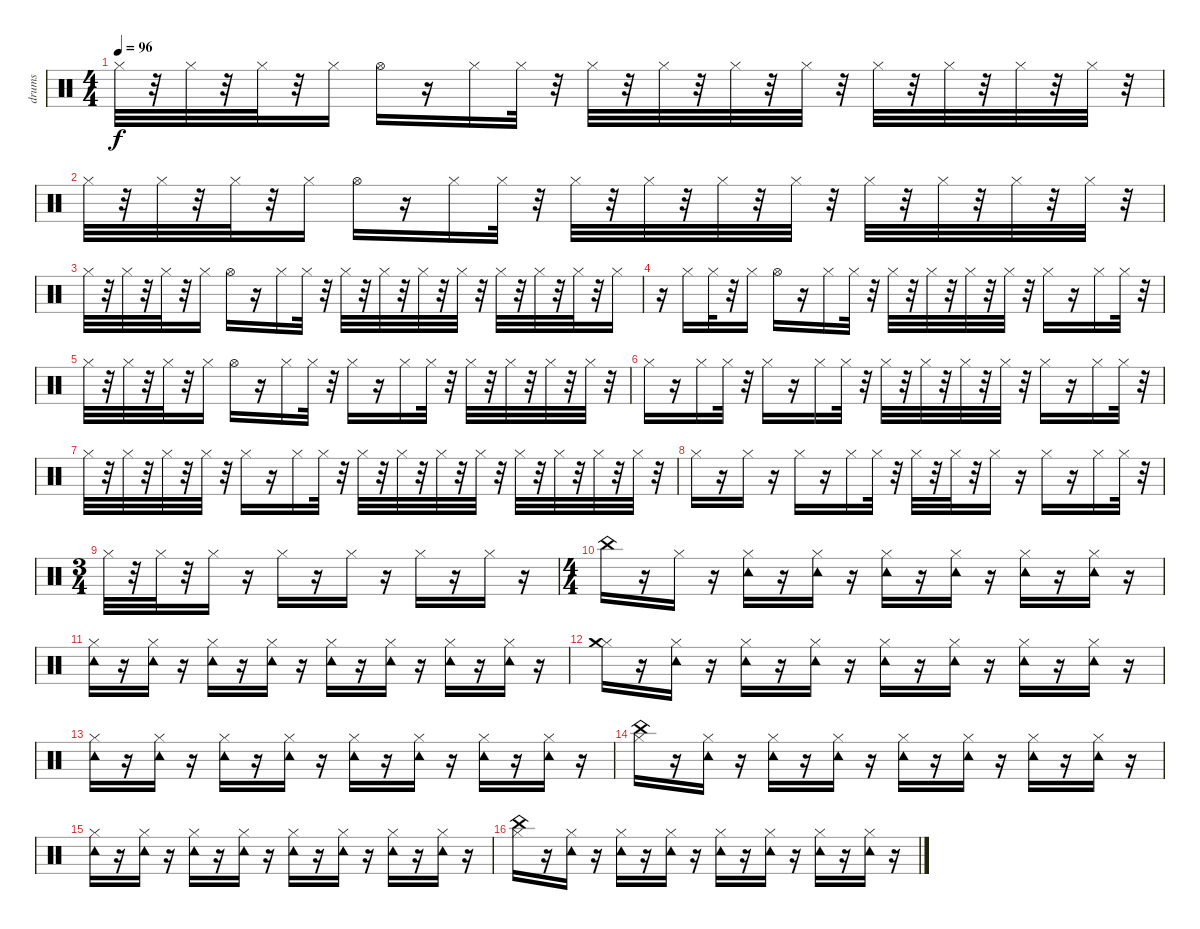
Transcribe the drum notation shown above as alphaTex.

\track ("drums" "drums") {instrument percussion}
\staff {score}
\articulation defaults
\ts (4 4)
\tempo 96
\clef neutral
\ks c "Hi-Hat (closed)".32{dy f}
r.32 "Hi-Hat (closed)".32 r.32 "Hi-Hat (closed)".32 r.32 "Hi-Hat (closed)".16 "Hi-Hat (open)".16 r.16 "Hi-Hat (closed)".16 "Hi-Hat (closed)".32 r.32 "Hi-Hat (closed)".32 r.32 "Hi-Hat (closed)".32 r.32 "Hi-Hat (closed)".32 r.32 "Hi-Hat (closed)".32 r.32 "Hi-Hat (closed)".32 r.32 "Hi-Hat (closed)".32 r.32 "Hi-Hat (closed)".32 r.32 "Hi-Hat (closed)".32 r.32 |
"Hi-Hat (closed)".32 r.32 "Hi-Hat (closed)".32 r.32 "Hi-Hat (closed)".32 r.32 "Hi-Hat (closed)".16 "Hi-Hat (open)".16 r.16 "Hi-Hat (closed)".16 "Hi-Hat (closed)".32 r.32 "Hi-Hat (closed)".32 r.32 "Hi-Hat (closed)".32 r.32 "Hi-Hat (closed)".32 r.32 "Hi-Hat (closed)".32 r.32 "Hi-Hat (closed)".32 r.32 "Hi-Hat (closed)".32 r.32 "Hi-Hat (closed)".32 r.32 "Hi-Hat (closed)".32 r.32 |
"Hi-Hat (closed)".32 r.32 "Hi-Hat (closed)".32 r.32 "Hi-Hat (closed)".32 r.32 "Hi-Hat (closed)".16 "Hi-Hat (open)".16 r.16 "Hi-Hat (closed)".16 "Hi-Hat (closed)".32 r.32 "Hi-Hat (closed)".32 r.32 "Hi-Hat (closed)".32 r.32 "Hi-Hat (closed)".32 r.32 "Hi-Hat (closed)".32 r.32 "Hi-Hat (closed)".32 r.32 "Hi-Hat (closed)".32 r.32 "Hi-Hat (closed)".32 r.32 "Hi-Hat (closed)".16 |
r.16 "Hi-Hat (closed)".16 "Hi-Hat (closed)".32 r.32 "Hi-Hat (closed)".16 "Hi-Hat (open)".16 r.16 "Hi-Hat (closed)".16 "Hi-Hat (closed)".32 r.32 "Hi-Hat (closed)".32 r.32 "Hi-Hat (closed)".32 r.32 "Hi-Hat (closed)".32 r.32 "Hi-Hat (closed)".32 r.32 "Hi-Hat (closed)".16 r.16 "Hi-Hat (closed)".16 "Hi-Hat (closed)".32 r.32 |
"Hi-Hat (closed)".32 r.32 "Hi-Hat (closed)".32 r.32 "Hi-Hat (closed)".32 r.32 "Hi-Hat (closed)".16 "Hi-Hat (open)".16 r.16 "Hi-Hat (closed)".16 "Hi-Hat (closed)".32 r.32 "Hi-Hat (closed)".16 r.16 "Hi-Hat (closed)".16 "Hi-Hat (closed)".32 r.32 "Hi-Hat (closed)".32 r.32 "Hi-Hat (closed)".32 r.32 "Hi-Hat (closed)".32 r.32 "Hi-Hat (closed)".32 r.32 |
"Hi-Hat (closed)".16 r.16 "Hi-Hat (closed)".16 "Hi-Hat (closed)".32 r.32 "Hi-Hat (closed)".16 r.16 "Hi-Hat (closed)".16 "Hi-Hat (closed)".32 r.32 "Hi-Hat (closed)".32 r.32 "Hi-Hat (closed)".32 r.32 "Hi-Hat (closed)".32 r.32 "Hi-Hat (closed)".32 r.32 "Hi-Hat (closed)".16 r.16 "Hi-Hat (closed)".16 "Hi-Hat (closed)".32 r.32 |
"Hi-Hat (closed)".32 r.32 "Hi-Hat (closed)".32 r.32 "Hi-Hat (closed)".32 r.32 "Hi-Hat (closed)".32 r.32 "Hi-Hat (closed)".16 r.16 "Hi-Hat (closed)".16 "Hi-Hat (closed)".32 r.32 "Hi-Hat (closed)".32 r.32 "Hi-Hat (closed)".32 r.32 "Hi-Hat (closed)".32 r.32 "Hi-Hat (closed)".32 r.32 "Hi-Hat (closed)".32 r.32 "Hi-Hat (closed)".32 r.32 "Hi-Hat (closed)".32 r.32 "Hi-Hat (closed)".32 r.32 |
"Hi-Hat (closed)".16 r.16 "Hi-Hat (closed)".16 r.16 "Hi-Hat (closed)".16 r.16 "Hi-Hat (closed)".16 "Hi-Hat (closed)".32 r.32 "Hi-Hat (closed)".32 r.32 "Hi-Hat (closed)".32 r.32 "Hi-Hat (closed)".16 r.16 "Hi-Hat (closed)".16 r.16 "Hi-Hat (closed)".16 "Hi-Hat (closed)".32 r.32 |
\ts (3 4)
"Hi-Hat (closed)".32 r.32 "Hi-Hat (closed)".32 r.32 "Hi-Hat (closed)".16 r.16 "Hi-Hat (closed)".16 r.16 "Hi-Hat (closed)".16 r.16 "Hi-Hat (closed)".16 r.16 "Hi-Hat (closed)".16 r.16 |
\ts (4 4)
"China (hit)".16 r.16 "Hi-Hat (closed)".16 r.16 ("Tambourine (hit)" "Hi-Hat (closed)").16 r.16 ("Hi-Hat (closed)" "Tambourine (hit)").16 r.16 ("Tambourine (hit)" "Hi-Hat (closed)").16 r.16 ("Hi-Hat (closed)" "Tambourine (hit)").16 r.16 ("Hi-Hat (closed)" "Tambourine (hit)").16 r.16 ("Hi-Hat (closed)" "Tambourine (hit)").16 r.16 |
("Hi-Hat (closed)" "Tambourine (hit)").16 r.16 ("Hi-Hat (closed)" "Tambourine (hit)").16 r.16 ("Hi-Hat (closed)" "Tambourine (hit)").16 r.16 ("Hi-Hat (closed)" "Tambourine (hit)").16 r.16 ("Hi-Hat (closed)" "Tambourine (hit)").16 r.16 ("Hi-Hat (closed)" "Tambourine (hit)").16 r.16 ("Hi-Hat (closed)" "Tambourine (hit)").16 r.16 ("Hi-Hat (closed)" "Tambourine (hit)").16 r.16 |
("Hi-Hat (closed)" "Crash medium (hit)").16 r.16 ("Hi-Hat (closed)" "Tambourine (hit)").16 r.16 ("Hi-Hat (closed)" "Tambourine (hit)").16 r.16 ("Hi-Hat (closed)" "Tambourine (hit)").16 r.16 ("Hi-Hat (closed)" "Tambourine (hit)").16 r.16 ("Hi-Hat (closed)" "Tambourine (hit)").16 r.16 ("Tambourine (hit)" "Hi-Hat (closed)").16 r.16 ("Hi-Hat (closed)" "Tambourine (hit)").16 r.16 |
("Hi-Hat (closed)" "Tambourine (hit)").16 r.16 ("Hi-Hat (closed)" "Tambourine (hit)").16 r.16 ("Hi-Hat (closed)" "Tambourine (hit)").16 r.16 ("Hi-Hat (closed)" "Tambourine (hit)").16 r.16 ("Hi-Hat (closed)" "Tambourine (hit)").16 r.16 ("Hi-Hat (closed)" "Tambourine (hit)").16 r.16 ("Hi-Hat (closed)" "Tambourine (hit)").16 r.16 ("Hi-Hat (closed)" "Tambourine (hit)").16 r.16 |
("Hi-Hat (closed)" "China (hit)").16 r.16 ("Hi-Hat (closed)" "Tambourine (hit)").16 r.16 ("Hi-Hat (closed)" "Tambourine (hit)").16 r.16 ("Hi-Hat (closed)" "Tambourine (hit)").16 r.16 ("Hi-Hat (closed)" "Tambourine (hit)").16 r.16 ("Hi-Hat (closed)" "Tambourine (hit)").16 r.16 ("Hi-Hat (closed)" "Tambourine (hit)").16 r.16 ("Hi-Hat (closed)" "Tambourine (hit)").16 r.16 |
("Hi-Hat (closed)" "Tambourine (hit)").16 r.16 ("Hi-Hat (closed)" "Tambourine (hit)").16 r.16 ("Hi-Hat (closed)" "Tambourine (hit)").16 r.16 ("Hi-Hat (closed)" "Tambourine (hit)").16 r.16 ("Hi-Hat (closed)" "Tambourine (hit)").16 r.16 ("Hi-Hat (closed)" "Tambourine (hit)").16 r.16 ("Hi-Hat (closed)" "Tambourine (hit)").16 r.16 ("Hi-Hat (closed)" "Tambourine (hit)").16 r.16 |
("Hi-Hat (closed)" "China (hit)").16 r.16 ("Tambourine (hit)" "Hi-Hat (closed)").16 r.16 ("Hi-Hat (closed)" "Tambourine (hit)").16 r.16 ("Hi-Hat (closed)" "Tambourine (hit)").16 r.16 ("Hi-Hat (closed)" "Tambourine (hit)").16 r.16 ("Hi-Hat (closed)" "Tambourine (hit)").16 r.16 ("Hi-Hat (closed)" "Tambourine (hit)").16 r.16 ("Hi-Hat (closed)" "Tambourine (hit)").16 r.16
